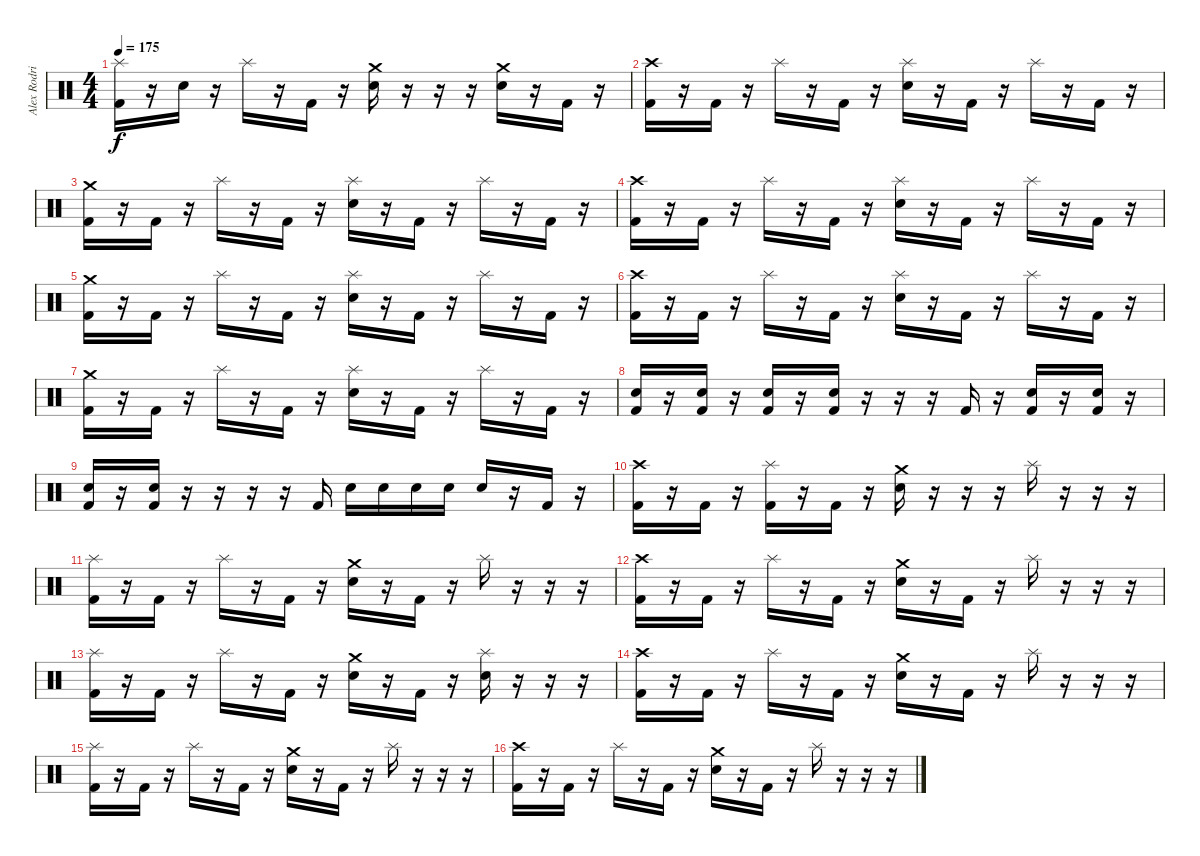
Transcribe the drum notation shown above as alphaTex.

\track ("Alex Rodriguez" "Alex Rodri") {instrument percussion}
\staff {score}
\articulation defaults
\ts (4 4)
\tempo 175
\clef neutral
\ks c
("Splash (hit)" "Kick (hit) 2").16{dy f} r.16 "Electric Snare (hit)".16 r.16 "Splash (hit)".16 r.16 "Kick (hit) 2".16 r.16 ("Crash medium (hit)" "Electric Snare (hit)").16 r.16 r.16 r.16 ("Crash medium (hit)" "Electric Snare (hit)").16 r.16 "Kick (hit) 2".16 r.16 |
("Crash high (hit)" "Kick (hit) 2").16 r.16 "Kick (hit) 2".16 r.16 "Splash (hit)".16 r.16 "Kick (hit) 2".16 r.16 ("Splash (hit)" "Electric Snare (hit)").16 r.16 "Kick (hit) 2".16 r.16 "Splash (hit)".16 r.16 "Kick (hit) 2".16 r.16 |
("Crash medium (hit)" "Kick (hit) 2").16 r.16 "Kick (hit) 2".16 r.16 "Splash (hit)".16 r.16 "Kick (hit) 2".16 r.16 ("Splash (hit)" "Electric Snare (hit)").16 r.16 "Kick (hit) 2".16 r.16 "Splash (hit)".16 r.16 "Kick (hit) 2".16 r.16 |
("Crash high (hit)" "Kick (hit) 2").16 r.16 "Kick (hit) 2".16 r.16 "Splash (hit)".16 r.16 "Kick (hit) 2".16 r.16 ("Splash (hit)" "Electric Snare (hit)").16 r.16 "Kick (hit) 2".16 r.16 "Splash (hit)".16 r.16 "Kick (hit) 2".16 r.16 |
("Crash medium (hit)" "Kick (hit) 2").16 r.16 "Kick (hit) 2".16 r.16 "Splash (hit)".16 r.16 "Kick (hit) 2".16 r.16 ("Splash (hit)" "Electric Snare (hit)").16 r.16 "Kick (hit) 2".16 r.16 "Splash (hit)".16 r.16 "Kick (hit) 2".16 r.16 |
("Crash high (hit)" "Kick (hit) 2").16 r.16 "Kick (hit) 2".16 r.16 "Splash (hit)".16 r.16 "Kick (hit) 2".16 r.16 ("Splash (hit)" "Electric Snare (hit)").16 r.16 "Kick (hit) 2".16 r.16 "Splash (hit)".16 r.16 "Kick (hit) 2".16 r.16 |
("Crash medium (hit)" "Kick (hit) 2").16 r.16 "Kick (hit) 2".16 r.16 "Splash (hit)".16 r.16 "Kick (hit) 2".16 r.16 ("Splash (hit)" "Electric Snare (hit)").16 r.16 "Kick (hit) 2".16 r.16 "Splash (hit)".16 r.16 "Kick (hit) 2".16 r.16 |
("Electric Snare (hit)" "Kick (hit) 2").16 r.16 ("Electric Snare (hit)" "Kick (hit) 2").16 r.16 ("Electric Snare (hit)" "Kick (hit) 2").16 r.16 ("Electric Snare (hit)" "Kick (hit) 2").16 r.16 r.16 r.16 "Kick (hit) 2".16 r.16 ("Electric Snare (hit)" "Kick (hit) 2").16 r.16 ("Electric Snare (hit)" "Kick (hit) 2").16 r.16 |
("Electric Snare (hit)" "Kick (hit) 2").16 r.16 ("Electric Snare (hit)" "Kick (hit) 2").16 r.16 r.16 r.16 r.16 "Kick (hit) 2".16 "Electric Snare (hit)".16 "Electric Snare (hit)".16 "Electric Snare (hit)".16 "Electric Snare (hit)".16 "Electric Snare (hit)".16 r.16 "Kick (hit) 2".16 r.16 |
("Crash high (hit)" "Kick (hit) 2").16 r.16 "Kick (hit) 2".16 r.16 ("Splash (hit)" "Kick (hit) 2").16 r.16 "Kick (hit) 2".16 r.16 ("Crash medium (hit)" "Electric Snare (hit)").16 r.16 r.16 r.16 "Splash (hit)".16 r.16 r.16 r.16 |
("Splash (hit)" "Kick (hit) 2").16 r.16 "Kick (hit) 2".16 r.16 "Splash (hit)".16 r.16 "Kick (hit) 2".16 r.16 ("Crash medium (hit)" "Electric Snare (hit)").16 r.16 "Kick (hit) 2".16 r.16 "Splash (hit)".16 r.16 r.16 r.16 |
("Crash high (hit)" "Kick (hit) 2").16 r.16 "Kick (hit) 2".16 r.16 "Splash (hit)".16 r.16 "Kick (hit) 2".16 r.16 ("Crash medium (hit)" "Electric Snare (hit)").16 r.16 "Kick (hit) 2".16 r.16 "Splash (hit)".16 r.16 r.16 r.16 |
("Splash (hit)" "Kick (hit) 2").16 r.16 "Kick (hit) 2".16 r.16 "Splash (hit)".16 r.16 "Kick (hit) 2".16 r.16 ("Crash medium (hit)" "Electric Snare (hit)").16 r.16 "Kick (hit) 2".16 r.16 ("Splash (hit)" "Electric Snare (hit)").16 r.16 r.16 r.16 |
("Crash high (hit)" "Kick (hit) 2").16 r.16 "Kick (hit) 2".16 r.16 "Splash (hit)".16 r.16 "Kick (hit) 2".16 r.16 ("Crash medium (hit)" "Electric Snare (hit)").16 r.16 "Kick (hit) 2".16 r.16 "Splash (hit)".16 r.16 r.16 r.16 |
("Splash (hit)" "Kick (hit) 2").16 r.16 "Kick (hit) 2".16 r.16 "Splash (hit)".16 r.16 "Kick (hit) 2".16 r.16 ("Crash medium (hit)" "Electric Snare (hit)").16 r.16 "Kick (hit) 2".16 r.16 "Splash (hit)".16 r.16 r.16 r.16 |
("Crash high (hit)" "Kick (hit) 2").16 r.16 "Kick (hit) 2".16 r.16 "Splash (hit)".16 r.16 "Kick (hit) 2".16 r.16 ("Crash medium (hit)" "Electric Snare (hit)").16 r.16 "Kick (hit) 2".16 r.16 "Splash (hit)".16 r.16 r.16 r.16
